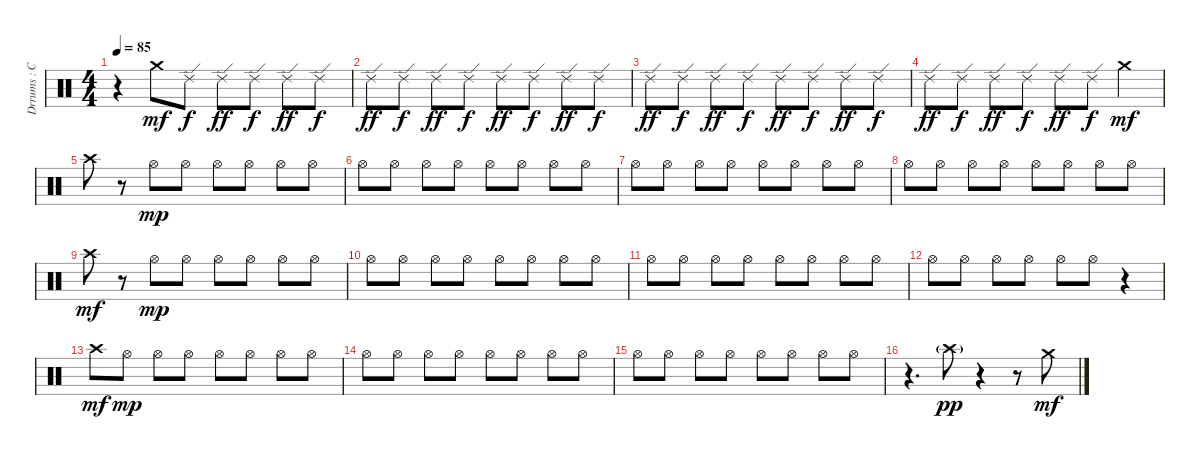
\track ("Drrums : Cymbals" "Drrums : C") {instrument percussion}
\staff {score}
\articulation defaults
\ts (4 4)
\tempo 85
\clef neutral
\ks c
r.4{dy f} "Crash medium (hit)".8{dy mf} "Ride (edge) 2".8{dy f} "Ride (edge) 2".8{dy ff} "Ride (edge) 2".8{dy f} "Ride (edge) 2".8{dy ff} "Ride (edge) 2".8{dy f} |
"Ride (edge) 2".8{dy ff} "Ride (edge) 2".8{dy f} "Ride (edge) 2".8{dy ff} "Ride (edge) 2".8{dy f} "Ride (edge) 2".8{dy ff} "Ride (edge) 2".8{dy f} "Ride (edge) 2".8{dy ff} "Ride (edge) 2".8{dy f} |
"Ride (edge) 2".8{dy ff} "Ride (edge) 2".8{dy f} "Ride (edge) 2".8{dy ff} "Ride (edge) 2".8{dy f} "Ride (edge) 2".8{dy ff} "Ride (edge) 2".8{dy f} "Ride (edge) 2".8{dy ff} "Ride (edge) 2".8{dy f} |
"Ride (edge) 2".8{dy ff} "Ride (edge) 2".8{dy f} "Ride (edge) 2".8{dy ff} "Ride (edge) 2".8{dy f} "Ride (edge) 2".8{dy ff} "Ride (edge) 2".8{dy f} "Crash medium (hit)".4{dy mf} |
"Crash high (hit)".8 r.8 "Hi-Hat (open)".8{dy mp} "Hi-Hat (open)".8 "Hi-Hat (open)".8 "Hi-Hat (open)".8 "Hi-Hat (open)".8 "Hi-Hat (open)".8 |
"Hi-Hat (open)".8 "Hi-Hat (open)".8 "Hi-Hat (open)".8 "Hi-Hat (open)".8 "Hi-Hat (open)".8 "Hi-Hat (open)".8 "Hi-Hat (open)".8 "Hi-Hat (open)".8 |
"Hi-Hat (open)".8 "Hi-Hat (open)".8 "Hi-Hat (open)".8 "Hi-Hat (open)".8 "Hi-Hat (open)".8 "Hi-Hat (open)".8 "Hi-Hat (open)".8 "Hi-Hat (open)".8 |
"Hi-Hat (open)".8 "Hi-Hat (open)".8 "Hi-Hat (open)".8 "Hi-Hat (open)".8 "Hi-Hat (open)".8 "Hi-Hat (open)".8 "Hi-Hat (open)".8 "Hi-Hat (open)".8 |
"Crash high (hit)".8{dy mf} r.8 "Hi-Hat (open)".8{dy mp} "Hi-Hat (open)".8 "Hi-Hat (open)".8 "Hi-Hat (open)".8 "Hi-Hat (open)".8 "Hi-Hat (open)".8 |
"Hi-Hat (open)".8 "Hi-Hat (open)".8 "Hi-Hat (open)".8 "Hi-Hat (open)".8 "Hi-Hat (open)".8 "Hi-Hat (open)".8 "Hi-Hat (open)".8 "Hi-Hat (open)".8 |
"Hi-Hat (open)".8 "Hi-Hat (open)".8 "Hi-Hat (open)".8 "Hi-Hat (open)".8 "Hi-Hat (open)".8 "Hi-Hat (open)".8 "Hi-Hat (open)".8 "Hi-Hat (open)".8 |
"Hi-Hat (open)".8 "Hi-Hat (open)".8 "Hi-Hat (open)".8 "Hi-Hat (open)".8 "Hi-Hat (open)".8 "Hi-Hat (open)".8 r.4 |
"Crash high (hit)".8{dy mf} "Hi-Hat (open)".8{dy mp} "Hi-Hat (open)".8 "Hi-Hat (open)".8 "Hi-Hat (open)".8 "Hi-Hat (open)".8 "Hi-Hat (open)".8 "Hi-Hat (open)".8 |
"Hi-Hat (open)".8 "Hi-Hat (open)".8 "Hi-Hat (open)".8 "Hi-Hat (open)".8 "Hi-Hat (open)".8 "Hi-Hat (open)".8 "Hi-Hat (open)".8 "Hi-Hat (open)".8 |
"Hi-Hat (open)".8 "Hi-Hat (open)".8 "Hi-Hat (open)".8 "Hi-Hat (open)".8 "Hi-Hat (open)".8 "Hi-Hat (open)".8 "Hi-Hat (open)".8 "Hi-Hat (open)".8 |
r.4{d} "Crash high (hit)"{g}.8{dy pp} r.4 r.8 "Crash medium (hit)".8{dy mf}
